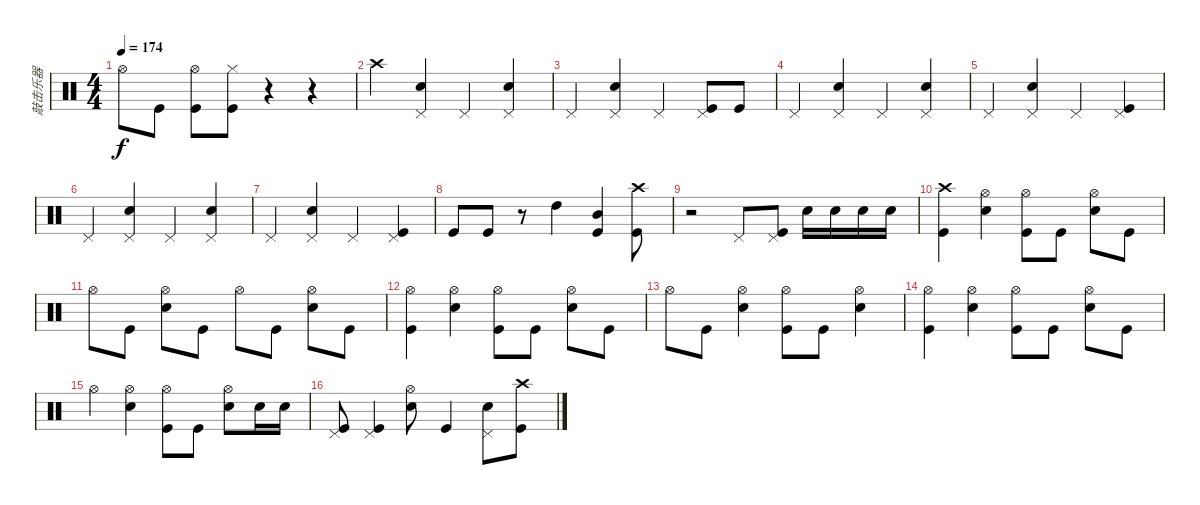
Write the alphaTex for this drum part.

\track ("敲击乐器" "敲击乐器") {instrument percussion}
\staff {score}
\articulation defaults
\ts (4 4)
\tempo 174
\clef neutral
\ks c "Hi-Hat (open)".8{dy f} "Kick (hit)".8
("Hi-Hat (open)" "Kick (hit)").8 ("Kick (hit)" "Hi-Hat (closed)").8 r.4 r.4 |
"Crash high (hit)".4 ("Electric Snare (hit)" "Pedal Hi-Hat (hit)").4 "Pedal Hi-Hat (hit)".4 ("Pedal Hi-Hat (hit)" "Electric Snare (hit)").4 |
"Pedal Hi-Hat (hit)".4 ("Electric Snare (hit)" "Pedal Hi-Hat (hit)").4 "Pedal Hi-Hat (hit)".4 ("Pedal Hi-Hat (hit)" "Kick (hit)").8 "Kick (hit)".8 |
"Pedal Hi-Hat (hit)".4 ("Electric Snare (hit)" "Pedal Hi-Hat (hit)").4 "Pedal Hi-Hat (hit)".4 ("Pedal Hi-Hat (hit)" "Electric Snare (hit)").4 |
"Pedal Hi-Hat (hit)".4 ("Electric Snare (hit)" "Pedal Hi-Hat (hit)").4 "Pedal Hi-Hat (hit)".4 ("Kick (hit)" "Pedal Hi-Hat (hit)").4 |
"Pedal Hi-Hat (hit)".4 ("Electric Snare (hit)" "Pedal Hi-Hat (hit)").4 "Pedal Hi-Hat (hit)".4 ("Pedal Hi-Hat (hit)" "Electric Snare (hit)").4 |
"Pedal Hi-Hat (hit)".4 ("Electric Snare (hit)" "Pedal Hi-Hat (hit)").4 "Pedal Hi-Hat (hit)".4 ("Pedal Hi-Hat (hit)" "Kick (hit)").4 |
"Kick (hit)".8 "Kick (hit)".8 r.8 "High Tom (hit)".4 ("Mid Tom (hit)" "Kick (hit)").4 ("Crash high (hit)" "Kick (hit)").8 |
r.2 "Pedal Hi-Hat (hit)".8 ("Kick (hit)" "Pedal Hi-Hat (hit)").8 "Electric Snare (hit)".16 "Electric Snare (hit)".16 "Electric Snare (hit)".16 "Electric Snare (hit)".16 |
("Kick (hit)" "Crash high (hit)").4 ("Hi-Hat (open)" "Electric Snare (hit)").4 ("Hi-Hat (open)" "Kick (hit)").8 "Kick (hit)".8 ("Hi-Hat (open)" "Electric Snare (hit)").8 "Kick (hit)".8 |
"Hi-Hat (open)".8 "Kick (hit)".8 ("Hi-Hat (open)" "Electric Snare (hit)").8 "Kick (hit)".8 "Hi-Hat (open)".8 "Kick (hit)".8 ("Electric Snare (hit)" "Hi-Hat (open)").8 "Kick (hit)".8 |
("Kick (hit)" "Hi-Hat (open)").4 ("Hi-Hat (open)" "Electric Snare (hit)").4 ("Hi-Hat (open)" "Kick (hit)").8 "Kick (hit)".8 ("Hi-Hat (open)" "Electric Snare (hit)").8 "Kick (hit)".8 |
"Hi-Hat (open)".8 "Kick (hit)".8 ("Hi-Hat (open)" "Electric Snare (hit)").4 ("Hi-Hat (open)" "Kick (hit)").8 "Kick (hit)".8 ("Hi-Hat (open)" "Electric Snare (hit)").4 |
("Kick (hit)" "Hi-Hat (open)").4 ("Hi-Hat (open)" "Electric Snare (hit)").4 ("Hi-Hat (open)" "Kick (hit)").8 "Kick (hit)".8 ("Hi-Hat (open)" "Electric Snare (hit)").8 "Kick (hit)".8 |
"Hi-Hat (open)".4 ("Hi-Hat (open)" "Electric Snare (hit)").4 ("Hi-Hat (open)" "Kick (hit)").8 "Kick (hit)".8 ("Hi-Hat (open)" "Electric Snare (hit)").8 "Electric Snare (hit)".16 "Electric Snare (hit)".16 |
("Kick (hit)" "Pedal Hi-Hat (hit)").8 ("Kick (hit)" "Pedal Hi-Hat (hit)").4 ("Electric Snare (hit)" "Hi-Hat (open)").8 "Kick (hit)".4 ("Electric Snare (hit)" "Pedal Hi-Hat (hit)").8 ("Kick (hit)" "Crash high (hit)").8
